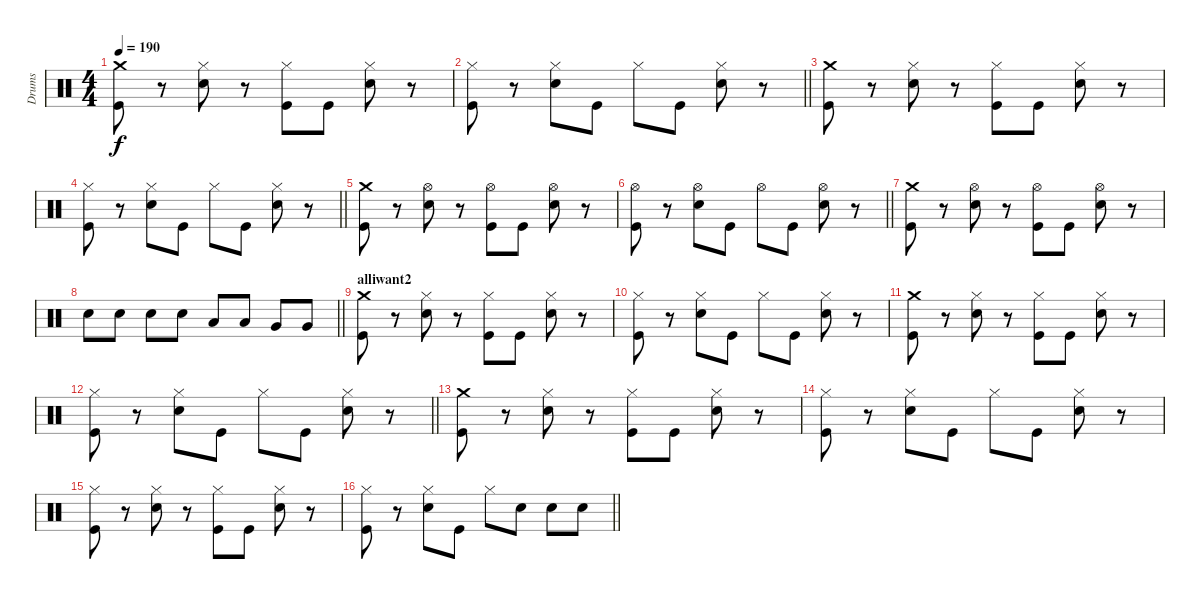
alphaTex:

\track ("Drums" "Drums") {instrument percussion}
\staff {score}
\articulation defaults
\ts (4 4)
\tempo 190
\clef neutral
\ks c
("Crash medium (hit)" "Kick (hit)").8{dy f} r.8 ("Hi-Hat (closed)" "Snare (hit) 2").8 r.8 ("Hi-Hat (closed)" "Kick (hit)").8 "Kick (hit)".8 ("Hi-Hat (closed)" "Snare (hit) 2").8 r.8 |
\barLineRight lightlight
("Hi-Hat (closed)" "Kick (hit)").8 r.8 ("Hi-Hat (closed)" "Snare (hit) 2").8 "Kick (hit)".8 "Hi-Hat (closed)".8 "Kick (hit)".8 ("Hi-Hat (closed)" "Snare (hit) 2").8 r.8 |
("Crash medium (hit)" "Kick (hit)").8 r.8 ("Hi-Hat (closed)" "Snare (hit) 2").8 r.8 ("Hi-Hat (closed)" "Kick (hit)").8 "Kick (hit)".8 ("Hi-Hat (closed)" "Snare (hit) 2").8 r.8 |
\barLineRight lightlight
("Hi-Hat (closed)" "Kick (hit)").8 r.8 ("Hi-Hat (closed)" "Snare (hit) 2").8 "Kick (hit)".8 "Hi-Hat (closed)".8 "Kick (hit)".8 ("Hi-Hat (closed)" "Snare (hit) 2").8 r.8 |
("Crash medium (hit)" "Kick (hit)").8 r.8 ("Hi-Hat (open)" "Snare (hit) 2").8 r.8 ("Hi-Hat (open)" "Kick (hit)").8 "Kick (hit)".8 ("Hi-Hat (open)" "Snare (hit) 2").8 r.8 |
\barLineRight lightlight
("Hi-Hat (open)" "Kick (hit)").8 r.8 ("Hi-Hat (open)" "Snare (hit) 2").8 "Kick (hit)".8 "Hi-Hat (open)".8 "Kick (hit)".8 ("Hi-Hat (open)" "Snare (hit) 2").8 r.8 |
("Crash medium (hit)" "Kick (hit)").8 r.8 ("Hi-Hat (open)" "Snare (hit) 2").8 r.8 ("Hi-Hat (open)" "Kick (hit)").8 "Kick (hit)".8 ("Hi-Hat (open)" "Snare (hit) 2").8 r.8 |
\barLineRight lightlight "Snare (hit) 2".8 "Snare (hit) 2".8 "Snare (hit) 2".8 "Snare (hit) 2".8 "Low Tom (hit)".8 "Low Tom (hit)".8 "Very Low Tom (hit)".8 "Very Low Tom (hit)".8
|
\section ("" "alliwant2")
("Crash medium (hit)" "Kick (hit)").8 r.8 ("Hi-Hat (closed)" "Snare (hit) 2").8 r.8 ("Hi-Hat (closed)" "Kick (hit)").8 "Kick (hit)".8 ("Hi-Hat (closed)" "Snare (hit) 2").8 r.8 |
("Hi-Hat (closed)" "Kick (hit)").8 r.8 ("Hi-Hat (closed)" "Snare (hit) 2").8 "Kick (hit)".8 "Hi-Hat (closed)".8 "Kick (hit)".8 ("Hi-Hat (closed)" "Snare (hit) 2").8 r.8 |
("Crash medium (hit)" "Kick (hit)").8 r.8 ("Hi-Hat (closed)" "Snare (hit) 2").8 r.8 ("Hi-Hat (closed)" "Kick (hit)").8 "Kick (hit)".8 ("Hi-Hat (closed)" "Snare (hit) 2").8 r.8 |
\barLineRight lightlight
("Hi-Hat (closed)" "Kick (hit)").8 r.8 ("Hi-Hat (closed)" "Snare (hit) 2").8 "Kick (hit)".8 "Hi-Hat (closed)".8 "Kick (hit)".8 ("Hi-Hat (closed)" "Snare (hit) 2").8 r.8 |
("Crash medium (hit)" "Kick (hit)").8 r.8 ("Hi-Hat (closed)" "Snare (hit) 2").8 r.8 ("Hi-Hat (closed)" "Kick (hit)").8 "Kick (hit)".8 ("Hi-Hat (closed)" "Snare (hit) 2").8 r.8 |
("Hi-Hat (closed)" "Kick (hit)").8 r.8 ("Hi-Hat (closed)" "Snare (hit) 2").8 "Kick (hit)".8 "Hi-Hat (closed)".8 "Kick (hit)".8 ("Hi-Hat (closed)" "Snare (hit) 2").8 r.8 |
("Hi-Hat (closed)" "Kick (hit)").8 r.8 ("Hi-Hat (closed)" "Snare (hit) 2").8 r.8 ("Hi-Hat (closed)" "Kick (hit)").8 "Kick (hit)".8 ("Hi-Hat (closed)" "Snare (hit) 2").8 r.8 |
\barLineRight lightlight
("Hi-Hat (closed)" "Kick (hit)").8 r.8 ("Hi-Hat (closed)" "Snare (hit) 2").8 "Kick (hit)".8 "Hi-Hat (closed)".8 "Snare (hit) 2".8 "Snare (hit) 2".8 "Snare (hit) 2".8
